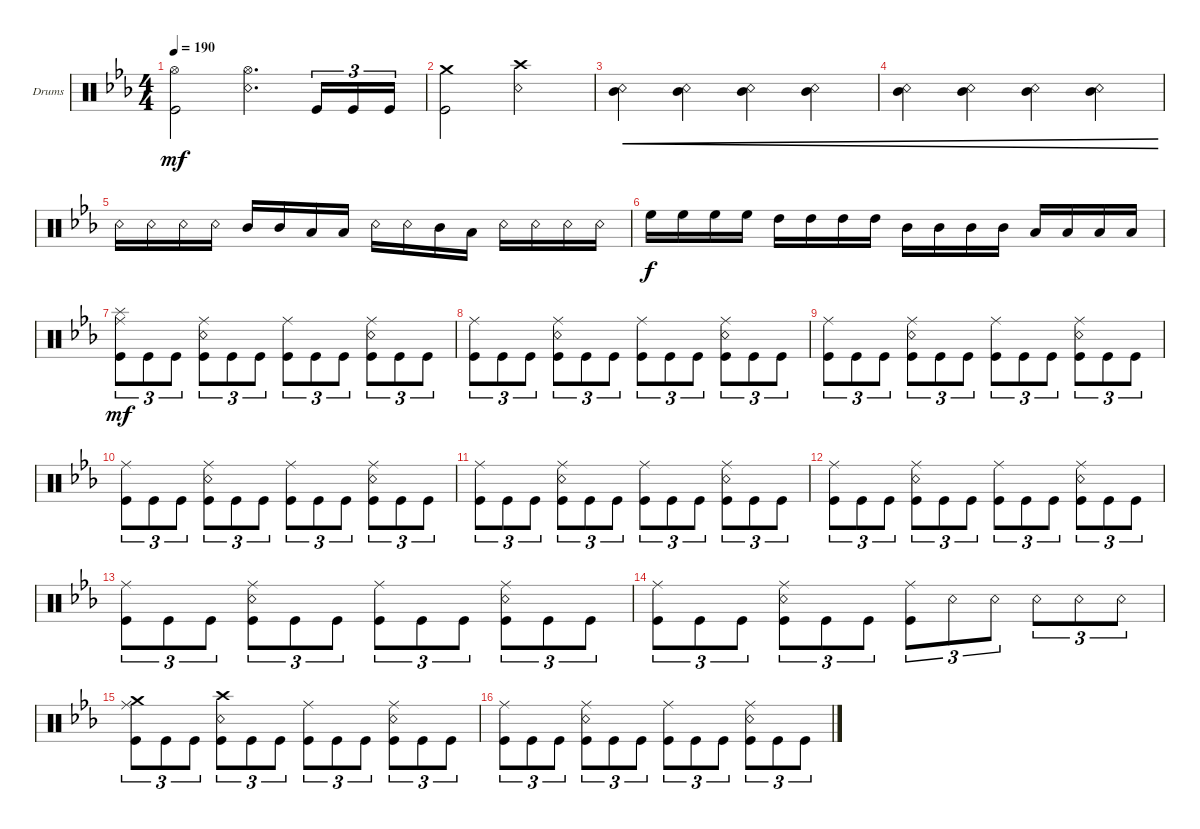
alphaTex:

\defaultSystemsLayout 4
\bracketExtendMode groupsimilarinstruments
\firstSystemTrackNameOrientation horizontal
\otherSystemsTrackNameOrientation horizontal
\track ("Drumkit" "Drums") {instrument percussion}
\staff {score}
\articulation defaults
\ts (4 4)
\tempo 190
\clef neutral
\ks cminor
("Kick (hit)" "Hi-Hat (open)").2{dy mf} ("Snare (rim shot)" "Hi-Hat (open)").4{d} "Kick (hit)".16{tu (3 2)} "Kick (hit)".16{tu (3 2)} "Kick (hit)".16{tu (3 2)} |
("Kick (hit)" "Crash medium (hit)").2 ("Crash high (hit)" "Snare (rim shot)").2 |
("Snare (rim shot)" "Mid Tom (hit)").4{cre} ("Snare (rim shot)" "Mid Tom (hit)").4{cre} ("Snare (rim shot)" "Mid Tom (hit)").4{cre} ("Snare (rim shot)" "Mid Tom (hit)").4{cre} |
("Snare (rim shot)" "Mid Tom (hit)").4{cre} ("Snare (rim shot)" "Mid Tom (hit)").4{cre} ("Snare (rim shot)" "Mid Tom (hit)").4{cre} ("Snare (rim shot)" "Mid Tom (hit)").4{cre} |
"Snare (rim shot)".16 "Snare (rim shot)".16 "Snare (rim shot)".16 "Snare (rim shot)".16 "Mid Tom (hit)".16 "Mid Tom (hit)".16 "Low Tom (hit)".16 "Low Tom (hit)".16 "Snare (rim shot)".16 "Snare (rim shot)".16 "Mid Tom (hit)".16 "Low Tom (hit)".16 "Snare (rim shot)".16 "Snare (rim shot)".16 "Snare (rim shot)".16 "Snare (rim shot)".16 |
"High Floor Tom (hit)".16{dy f} "High Floor Tom (hit)".16 "High Floor Tom (hit)".16 "High Floor Tom (hit)".16 "High Tom (hit)".16 "High Tom (hit)".16 "High Tom (hit)".16 "High Tom (hit)".16 "Mid Tom (hit)".16 "Mid Tom (hit)".16 "Mid Tom (hit)".16 "Mid Tom (hit)".16 "Low Tom (hit)".16 "Low Tom (hit)".16 "Low Tom (hit)".16 "Low Tom (hit)".16 |
("Kick (hit)" "Ride (middle)" "Splash (hit)").8{tu (3 2) dy mf} "Kick (hit)".8{tu (3 2)} "Kick (hit)".8{tu (3 2)} ("Kick (hit)" "Snare (rim shot)" "Ride (middle)").8{tu (3 2)} "Kick (hit)".8{tu (3 2)} "Kick (hit)".8{tu (3 2)} ("Kick (hit)" "Ride (middle)").8{tu (3 2)} "Kick (hit)".8{tu (3 2)} "Kick (hit)".8{tu (3 2)} ("Kick (hit)" "Snare (rim shot)" "Ride (middle)").8{tu (3 2)} "Kick (hit)".8{tu (3 2)} "Kick (hit)".8{tu (3 2)} |
("Kick (hit)" "Ride (middle)").8{tu (3 2)} "Kick (hit)".8{tu (3 2)} "Kick (hit)".8{tu (3 2)} ("Kick (hit)" "Snare (rim shot)" "Ride (middle)").8{tu (3 2)} "Kick (hit)".8{tu (3 2)} "Kick (hit)".8{tu (3 2)} ("Kick (hit)" "Ride (middle)").8{tu (3 2)} "Kick (hit)".8{tu (3 2)} "Kick (hit)".8{tu (3 2)} ("Kick (hit)" "Snare (rim shot)" "Ride (middle)").8{tu (3 2)} "Kick (hit)".8{tu (3 2)} "Kick (hit)".8{tu (3 2)} |
("Kick (hit)" "Ride (middle)").8{tu (3 2)} "Kick (hit)".8{tu (3 2)} "Kick (hit)".8{tu (3 2)} ("Kick (hit)" "Snare (rim shot)" "Ride (middle)").8{tu (3 2)} "Kick (hit)".8{tu (3 2)} "Kick (hit)".8{tu (3 2)} ("Kick (hit)" "Ride (middle)").8{tu (3 2)} "Kick (hit)".8{tu (3 2)} "Kick (hit)".8{tu (3 2)} ("Kick (hit)" "Snare (rim shot)" "Ride (middle)").8{tu (3 2)} "Kick (hit)".8{tu (3 2)} "Kick (hit)".8{tu (3 2)} |
("Kick (hit)" "Ride (middle)").8{tu (3 2)} "Kick (hit)".8{tu (3 2)} "Kick (hit)".8{tu (3 2)} ("Kick (hit)" "Snare (rim shot)" "Ride (middle)").8{tu (3 2)} "Kick (hit)".8{tu (3 2)} "Kick (hit)".8{tu (3 2)} ("Kick (hit)" "Ride (middle)").8{tu (3 2)} "Kick (hit)".8{tu (3 2)} "Kick (hit)".8{tu (3 2)} ("Kick (hit)" "Snare (rim shot)" "Ride (middle)").8{tu (3 2)} "Kick (hit)".8{tu (3 2)} "Kick (hit)".8{tu (3 2)} |
("Kick (hit)" "Ride (middle)").8{tu (3 2)} "Kick (hit)".8{tu (3 2)} "Kick (hit)".8{tu (3 2)} ("Kick (hit)" "Snare (rim shot)" "Ride (middle)").8{tu (3 2)} "Kick (hit)".8{tu (3 2)} "Kick (hit)".8{tu (3 2)} ("Kick (hit)" "Ride (middle)").8{tu (3 2)} "Kick (hit)".8{tu (3 2)} "Kick (hit)".8{tu (3 2)} ("Kick (hit)" "Snare (rim shot)" "Ride (middle)").8{tu (3 2)} "Kick (hit)".8{tu (3 2)} "Kick (hit)".8{tu (3 2)} |
("Kick (hit)" "Ride (middle)").8{tu (3 2)} "Kick (hit)".8{tu (3 2)} "Kick (hit)".8{tu (3 2)} ("Kick (hit)" "Snare (rim shot)" "Ride (middle)").8{tu (3 2)} "Kick (hit)".8{tu (3 2)} "Kick (hit)".8{tu (3 2)} ("Kick (hit)" "Ride (middle)").8{tu (3 2)} "Kick (hit)".8{tu (3 2)} "Kick (hit)".8{tu (3 2)} ("Kick (hit)" "Snare (rim shot)" "Ride (middle)").8{tu (3 2)} "Kick (hit)".8{tu (3 2)} "Kick (hit)".8{tu (3 2)} |
("Kick (hit)" "Ride (middle)").8{tu (3 2)} "Kick (hit)".8{tu (3 2)} "Kick (hit)".8{tu (3 2)} ("Kick (hit)" "Snare (rim shot)" "Ride (middle)").8{tu (3 2)} "Kick (hit)".8{tu (3 2)} "Kick (hit)".8{tu (3 2)} ("Kick (hit)" "Ride (middle)").8{tu (3 2)} "Kick (hit)".8{tu (3 2)} "Kick (hit)".8{tu (3 2)} ("Kick (hit)" "Snare (rim shot)" "Ride (middle)").8{tu (3 2)} "Kick (hit)".8{tu (3 2)} "Kick (hit)".8{tu (3 2)} |
("Kick (hit)" "Ride (middle)").8{tu (3 2)} "Kick (hit)".8{tu (3 2)} "Kick (hit)".8{tu (3 2)} ("Kick (hit)" "Snare (rim shot)" "Ride (middle)").8{tu (3 2)} "Kick (hit)".8{tu (3 2)} "Kick (hit)".8{tu (3 2)} ("Kick (hit)" "Ride (middle)").8{tu (3 2)} "Snare (rim shot)".8{tu (3 2)} "Snare (rim shot)".8{tu (3 2)} "Snare (rim shot)".8{tu (3 2)} "Snare (rim shot)".8{tu (3 2)} "Snare (rim shot)".8{tu (3 2)} |
("Kick (hit)" "Ride (middle)" "Crash medium (hit)").8{tu (3 2)} "Kick (hit)".8{tu (3 2)} "Kick (hit)".8{tu (3 2)} ("Kick (hit)" "Snare (rim shot)" "Crash high (hit)").8{tu (3 2)} "Kick (hit)".8{tu (3 2)} "Kick (hit)".8{tu (3 2)} ("Kick (hit)" "Ride (middle)").8{tu (3 2)} "Kick (hit)".8{tu (3 2)} "Kick (hit)".8{tu (3 2)} ("Kick (hit)" "Snare (rim shot)" "Ride (middle)").8{tu (3 2)} "Kick (hit)".8{tu (3 2)} "Kick (hit)".8{tu (3 2)} |
("Kick (hit)" "Ride (middle)").8{tu (3 2)} "Kick (hit)".8{tu (3 2)} "Kick (hit)".8{tu (3 2)} ("Kick (hit)" "Snare (rim shot)" "Ride (middle)").8{tu (3 2)} "Kick (hit)".8{tu (3 2)} "Kick (hit)".8{tu (3 2)} ("Kick (hit)" "Ride (middle)").8{tu (3 2)} "Kick (hit)".8{tu (3 2)} "Kick (hit)".8{tu (3 2)} ("Kick (hit)" "Snare (rim shot)" "Ride (middle)").8{tu (3 2)} "Kick (hit)".8{tu (3 2)} "Kick (hit)".8{tu (3 2)}
